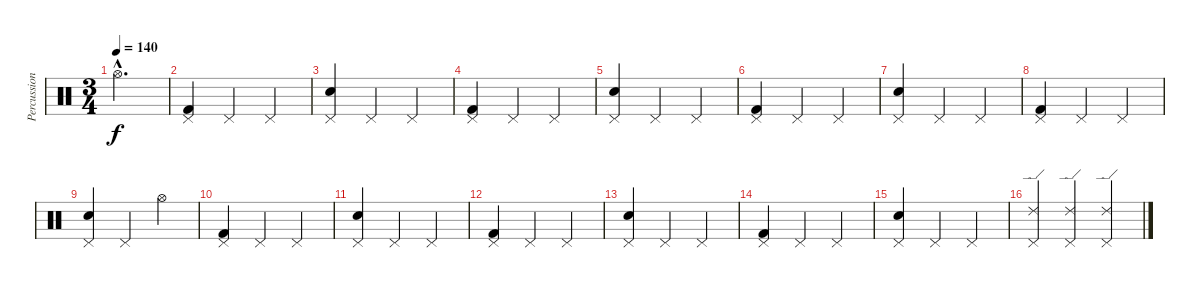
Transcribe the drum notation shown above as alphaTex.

\track ("Percussion" "Percussion") {instrument percussion}
\staff {score}
\articulation defaults
\ts (3 4)
\tempo 140
\clef neutral
\ks c "Hi-Hat (open)"{hac}.2{d dy f}
|
("Pedal Hi-Hat (hit)" "Kick (hit) 2").4 "Pedal Hi-Hat (hit)".4 "Pedal Hi-Hat (hit)".4 |
("Pedal Hi-Hat (hit)" "Snare (hit) 2").4 "Pedal Hi-Hat (hit)".4 "Pedal Hi-Hat (hit)".4 |
("Pedal Hi-Hat (hit)" "Kick (hit) 2").4 "Pedal Hi-Hat (hit)".4 "Pedal Hi-Hat (hit)".4 |
("Pedal Hi-Hat (hit)" "Snare (hit) 2").4 "Pedal Hi-Hat (hit)".4 "Pedal Hi-Hat (hit)".4 |
("Pedal Hi-Hat (hit)" "Kick (hit) 2").4 "Pedal Hi-Hat (hit)".4 "Pedal Hi-Hat (hit)".4 |
("Pedal Hi-Hat (hit)" "Snare (hit) 2").4 "Pedal Hi-Hat (hit)".4 "Pedal Hi-Hat (hit)".4 |
("Pedal Hi-Hat (hit)" "Kick (hit) 2").4 "Pedal Hi-Hat (hit)".4 "Pedal Hi-Hat (hit)".4 |
("Pedal Hi-Hat (hit)" "Snare (hit) 2").4 "Pedal Hi-Hat (hit)".4 "Hi-Hat (open)".4 |
("Pedal Hi-Hat (hit)" "Kick (hit) 2").4 "Pedal Hi-Hat (hit)".4 "Pedal Hi-Hat (hit)".4 |
("Pedal Hi-Hat (hit)" "Snare (hit) 2").4 "Pedal Hi-Hat (hit)".4 "Pedal Hi-Hat (hit)".4 |
("Pedal Hi-Hat (hit)" "Kick (hit) 2").4 "Pedal Hi-Hat (hit)".4 "Pedal Hi-Hat (hit)".4 |
("Pedal Hi-Hat (hit)" "Snare (hit) 2").4 "Pedal Hi-Hat (hit)".4 "Pedal Hi-Hat (hit)".4 |
("Pedal Hi-Hat (hit)" "Kick (hit) 2").4 "Pedal Hi-Hat (hit)".4 "Pedal Hi-Hat (hit)".4 |
("Pedal Hi-Hat (hit)" "Snare (hit) 2").4 "Pedal Hi-Hat (hit)".4 "Pedal Hi-Hat (hit)".4 |
("Pedal Hi-Hat (hit)" "Ride (edge) 2").4 ("Pedal Hi-Hat (hit)" "Ride (edge) 2").4 ("Pedal Hi-Hat (hit)" "Ride (edge) 2").4
